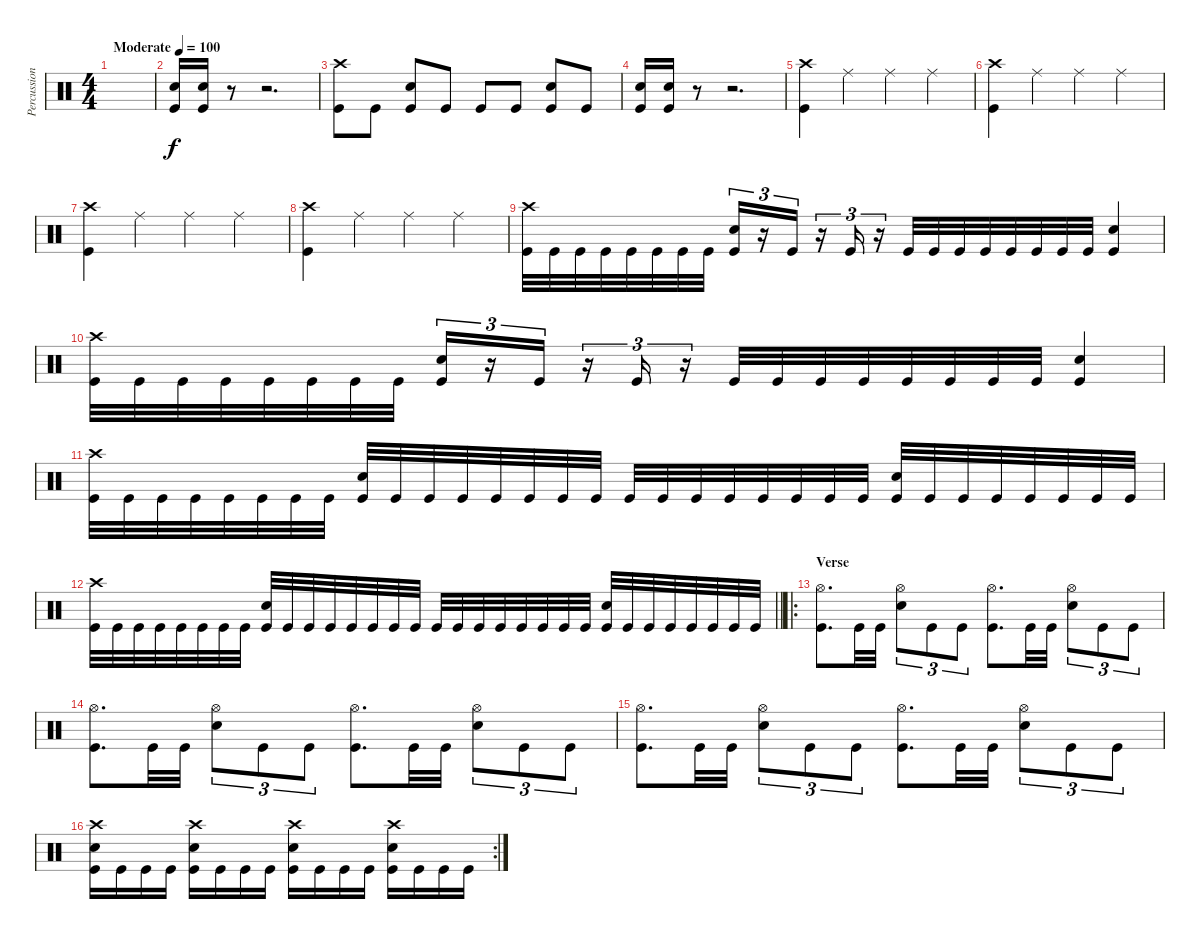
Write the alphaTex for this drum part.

\track ("Percussion" "Percussion") {instrument percussion}
\staff {score}
\articulation defaults
\ts (4 4)
\tempo (100 "Moderate")
\clef neutral
\ks c
|
("Electric Snare (hit)" "Kick (hit)").16 ("Electric Snare (hit)" "Kick (hit)").16 r.8 r.2{d} |
("Crash high (hit)" "Kick (hit)").8 "Kick (hit)".8 ("Electric Snare (hit)" "Kick (hit)").8 "Kick (hit)".8 "Kick (hit)".8 "Kick (hit)".8 ("Electric Snare (hit)" "Kick (hit)").8 "Kick (hit)".8 |
("Electric Snare (hit)" "Kick (hit)").16 ("Electric Snare (hit)" "Kick (hit)").16 r.8 r.2{d} |
("Crash high (hit)" "Kick (hit)").4 "Ride (middle)".4 "Ride (middle)".4 "Ride (middle)".4 |
("Crash high (hit)" "Kick (hit)").4 "Ride (middle)".4 "Ride (middle)".4 "Ride (middle)".4 |
("Crash high (hit)" "Kick (hit)").4 "Ride (middle)".4 "Ride (middle)".4 "Ride (middle)".4 |
("Crash high (hit)" "Kick (hit)").4 "Ride (middle)".4 "Ride (middle)".4 "Ride (middle)".4 |
("Crash high (hit)" "Kick (hit)").32 "Kick (hit)".32 "Kick (hit)".32 "Kick (hit)".32 "Kick (hit)".32 "Kick (hit)".32 "Kick (hit)".32 "Kick (hit)".32 ("Electric Snare (hit)" "Kick (hit)").16{tu (3 2)} r.16{tu (3 2)} "Kick (hit)".16{tu (3 2)} r.16{tu (3 2)} "Kick (hit)".16{tu (3 2)} r.16{tu (3 2)} "Kick (hit)".32 "Kick (hit)".32 "Kick (hit)".32 "Kick (hit)".32 "Kick (hit)".32 "Kick (hit)".32 "Kick (hit)".32 "Kick (hit)".32 ("Electric Snare (hit)" "Kick (hit)").4 |
("Crash high (hit)" "Kick (hit)").32 "Kick (hit)".32 "Kick (hit)".32 "Kick (hit)".32 "Kick (hit)".32 "Kick (hit)".32 "Kick (hit)".32 "Kick (hit)".32 ("Electric Snare (hit)" "Kick (hit)").16{tu (3 2)} r.16{tu (3 2)} "Kick (hit)".16{tu (3 2)} r.16{tu (3 2)} "Kick (hit)".16{tu (3 2)} r.16{tu (3 2)} "Kick (hit)".32 "Kick (hit)".32 "Kick (hit)".32 "Kick (hit)".32 "Kick (hit)".32 "Kick (hit)".32 "Kick (hit)".32 "Kick (hit)".32 ("Electric Snare (hit)" "Kick (hit)").4 |
("Crash high (hit)" "Kick (hit)").32 "Kick (hit)".32 "Kick (hit)".32 "Kick (hit)".32 "Kick (hit)".32 "Kick (hit)".32 "Kick (hit)".32 "Kick (hit)".32 ("Electric Snare (hit)" "Kick (hit)").32 "Kick (hit)".32 "Kick (hit)".32 "Kick (hit)".32 "Kick (hit)".32 "Kick (hit)".32 "Kick (hit)".32 "Kick (hit)".32 "Kick (hit)".32 "Kick (hit)".32 "Kick (hit)".32 "Kick (hit)".32 "Kick (hit)".32 "Kick (hit)".32 "Kick (hit)".32 "Kick (hit)".32 ("Electric Snare (hit)" "Kick (hit)").32 "Kick (hit)".32 "Kick (hit)".32 "Kick (hit)".32 "Kick (hit)".32 "Kick (hit)".32 "Kick (hit)".32 "Kick (hit)".32 |
\barLineRight lightlight
("Crash high (hit)" "Kick (hit)").32 "Kick (hit)".32 "Kick (hit)".32 "Kick (hit)".32 "Kick (hit)".32 "Kick (hit)".32 "Kick (hit)".32 "Kick (hit)".32 ("Electric Snare (hit)" "Kick (hit)").32 "Kick (hit)".32 "Kick (hit)".32 "Kick (hit)".32 "Kick (hit)".32 "Kick (hit)".32 "Kick (hit)".32 "Kick (hit)".32 "Kick (hit)".32 "Kick (hit)".32 "Kick (hit)".32 "Kick (hit)".32 "Kick (hit)".32 "Kick (hit)".32 "Kick (hit)".32 "Kick (hit)".32 ("Electric Snare (hit)" "Kick (hit)").32 "Kick (hit)".32 "Kick (hit)".32 "Kick (hit)".32 "Kick (hit)".32 "Kick (hit)".32 "Kick (hit)".32 "Kick (hit)".32 |
\ro
\section ("" "Verse")
("Hi-Hat (open)" "Kick (hit)").8{d} "Kick (hit)".32 "Kick (hit)".32 ("Hi-Hat (open)" "Electric Snare (hit)").8{tu (3 2)} "Kick (hit)".8{tu (3 2)} "Kick (hit)".8{tu (3 2)} ("Hi-Hat (open)" "Kick (hit)").8{d} "Kick (hit)".32 "Kick (hit)".32 ("Hi-Hat (open)" "Electric Snare (hit)").8{tu (3 2)} "Kick (hit)".8{tu (3 2)} "Kick (hit)".8{tu (3 2)} |
("Hi-Hat (open)" "Kick (hit)").8{d} "Kick (hit)".32 "Kick (hit)".32 ("Hi-Hat (open)" "Electric Snare (hit)").8{tu (3 2)} "Kick (hit)".8{tu (3 2)} "Kick (hit)".8{tu (3 2)} ("Hi-Hat (open)" "Kick (hit)").8{d} "Kick (hit)".32 "Kick (hit)".32 ("Hi-Hat (open)" "Electric Snare (hit)").8{tu (3 2)} "Kick (hit)".8{tu (3 2)} "Kick (hit)".8{tu (3 2)} |
("Hi-Hat (open)" "Kick (hit)").8{d} "Kick (hit)".32 "Kick (hit)".32 ("Hi-Hat (open)" "Electric Snare (hit)").8{tu (3 2)} "Kick (hit)".8{tu (3 2)} "Kick (hit)".8{tu (3 2)} ("Hi-Hat (open)" "Kick (hit)").8{d} "Kick (hit)".32 "Kick (hit)".32 ("Hi-Hat (open)" "Electric Snare (hit)").8{tu (3 2)} "Kick (hit)".8{tu (3 2)} "Kick (hit)".8{tu (3 2)} |
\rc 2
("Crash high (hit)" "Electric Snare (hit)" "Kick (hit)").16 "Kick (hit)".16 "Kick (hit)".16 "Kick (hit)".16 ("Crash high (hit)" "Electric Snare (hit)" "Kick (hit)").16 "Kick (hit)".16 "Kick (hit)".16 "Kick (hit)".16 ("Crash high (hit)" "Electric Snare (hit)" "Kick (hit)").16 "Kick (hit)".16 "Kick (hit)".16 "Kick (hit)".16 ("Crash high (hit)" "Electric Snare (hit)" "Kick (hit)").16 "Kick (hit)".16 "Kick (hit)".16 "Kick (hit)".16
